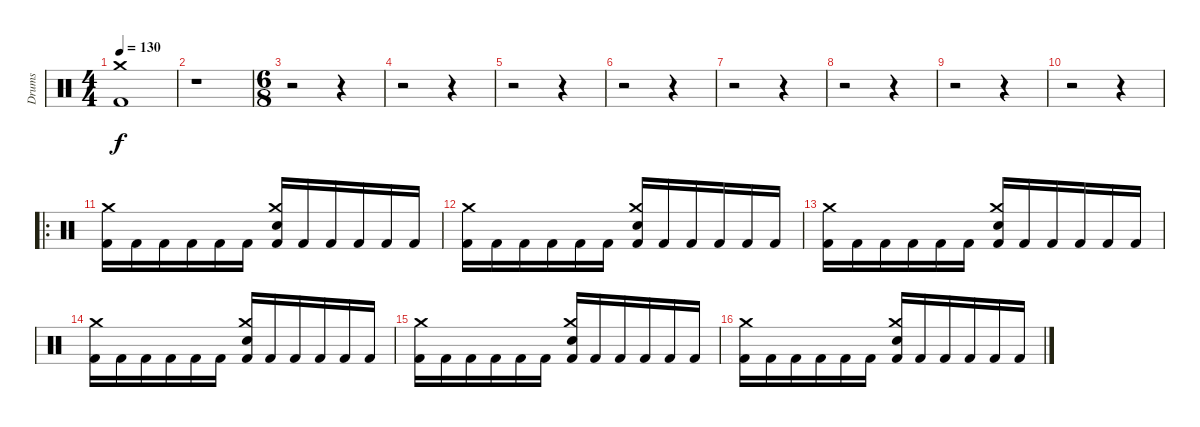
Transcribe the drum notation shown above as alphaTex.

\track ("Drums" "Drums") {instrument percussion}
\staff {score}
\articulation defaults
\ts (4 4)
\tempo 130
\clef neutral
\ks c
("Kick (hit) 2" "Crash medium (hit)").1{dy f} |
r.1 |
\ts (6 8)
r.2 r.4 |
r.2 r.4 |
r.2 r.4 |
r.2 r.4 |
r.2 r.4 |
r.2 r.4 |
r.2 r.4 |
r.2 r.4 |
\ro
("Kick (hit) 2" "Crash medium (hit)").16 "Kick (hit) 2".16 "Kick (hit) 2".16 "Kick (hit) 2".16 "Kick (hit) 2".16 "Kick (hit) 2".16 ("Kick (hit) 2" "Electric Snare (hit)" "Crash medium (hit)").16 "Kick (hit) 2".16 "Kick (hit) 2".16 "Kick (hit) 2".16 "Kick (hit) 2".16 "Kick (hit) 2".16 |
("Kick (hit) 2" "Crash medium (hit)").16 "Kick (hit) 2".16 "Kick (hit) 2".16 "Kick (hit) 2".16 "Kick (hit) 2".16 "Kick (hit) 2".16 ("Kick (hit) 2" "Electric Snare (hit)" "Crash medium (hit)").16 "Kick (hit) 2".16 "Kick (hit) 2".16 "Kick (hit) 2".16 "Kick (hit) 2".16 "Kick (hit) 2".16 |
("Kick (hit) 2" "Crash medium (hit)").16 "Kick (hit) 2".16 "Kick (hit) 2".16 "Kick (hit) 2".16 "Kick (hit) 2".16 "Kick (hit) 2".16 ("Kick (hit) 2" "Electric Snare (hit)" "Crash medium (hit)").16 "Kick (hit) 2".16 "Kick (hit) 2".16 "Kick (hit) 2".16 "Kick (hit) 2".16 "Kick (hit) 2".16 |
("Kick (hit) 2" "Crash medium (hit)").16 "Kick (hit) 2".16 "Kick (hit) 2".16 "Kick (hit) 2".16 "Kick (hit) 2".16 "Kick (hit) 2".16 ("Kick (hit) 2" "Electric Snare (hit)" "Crash medium (hit)").16 "Kick (hit) 2".16 "Kick (hit) 2".16 "Kick (hit) 2".16 "Kick (hit) 2".16 "Kick (hit) 2".16 |
("Kick (hit) 2" "Crash medium (hit)").16 "Kick (hit) 2".16 "Kick (hit) 2".16 "Kick (hit) 2".16 "Kick (hit) 2".16 "Kick (hit) 2".16 ("Kick (hit) 2" "Electric Snare (hit)" "Crash medium (hit)").16 "Kick (hit) 2".16 "Kick (hit) 2".16 "Kick (hit) 2".16 "Kick (hit) 2".16 "Kick (hit) 2".16 |
("Kick (hit) 2" "Crash medium (hit)").16 "Kick (hit) 2".16 "Kick (hit) 2".16 "Kick (hit) 2".16 "Kick (hit) 2".16 "Kick (hit) 2".16 ("Kick (hit) 2" "Electric Snare (hit)" "Crash medium (hit)").16 "Kick (hit) 2".16 "Kick (hit) 2".16 "Kick (hit) 2".16 "Kick (hit) 2".16 "Kick (hit) 2".16
